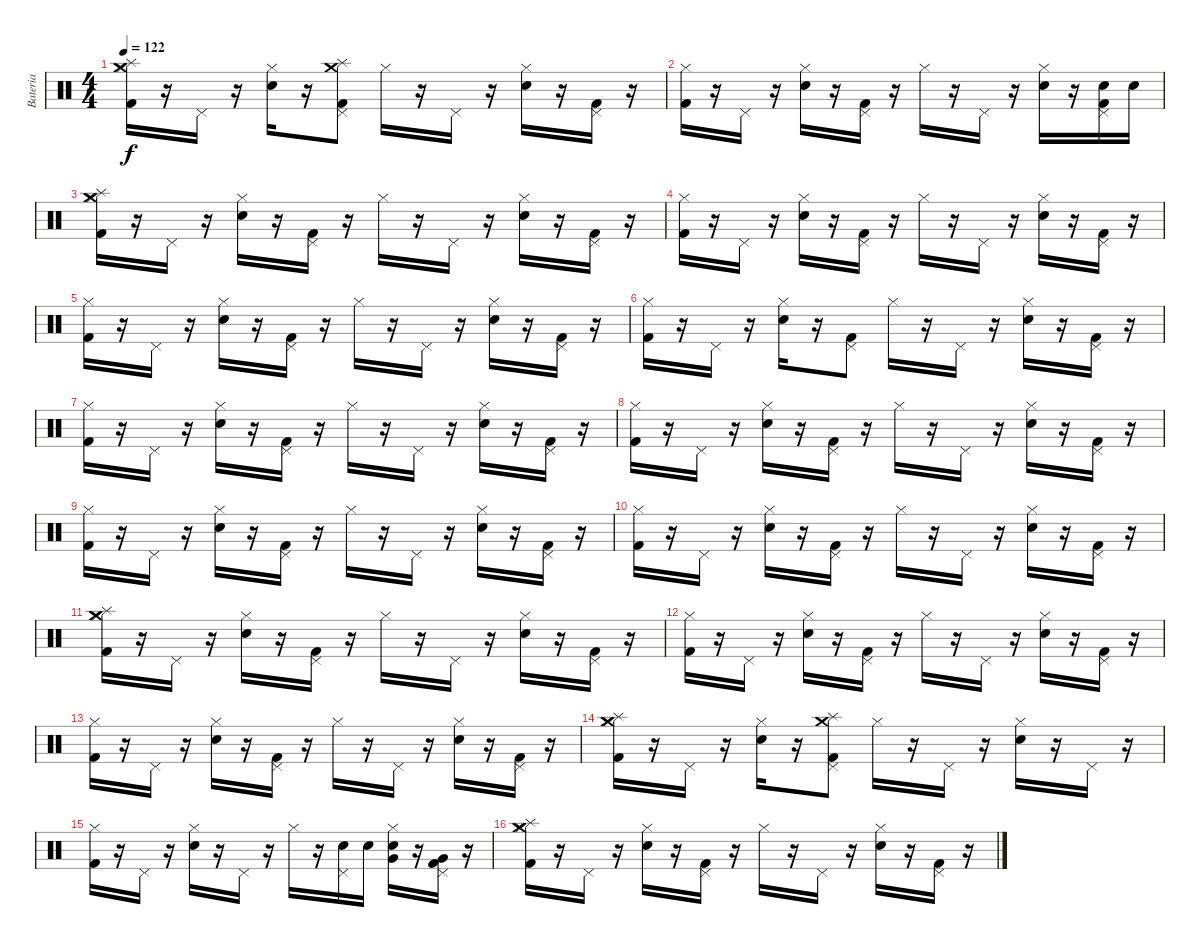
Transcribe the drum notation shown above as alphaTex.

\track ("Bateria" "Bateria") {instrument percussion}
\staff {score}
\articulation defaults
\ts (4 4)
\tempo 122
\clef neutral
\ks c
("Kick (hit) 2" "Hi-Hat (closed)" "Crash medium (hit)" "Splash (hit)").16{dy f} r.16 "Pedal Hi-Hat (hit)".16 r.16 ("Snare (hit) 2" "Hi-Hat (closed)").16 r.16 ("Kick (hit) 2" "Pedal Hi-Hat (hit)" "Crash medium (hit)" "Splash (hit)").8 "Hi-Hat (closed)".16 r.16 "Pedal Hi-Hat (hit)".16 r.16 ("Hi-Hat (closed)" "Snare (hit) 2").16 r.16 ("Kick (hit) 2" "Pedal Hi-Hat (hit)").16 r.16 |
("Kick (hit) 2" "Hi-Hat (closed)").16 r.16 "Pedal Hi-Hat (hit)".16 r.16 ("Snare (hit) 2" "Hi-Hat (closed)").16 r.16 ("Kick (hit) 2" "Pedal Hi-Hat (hit)").16 r.16 "Hi-Hat (closed)".16 r.16 "Pedal Hi-Hat (hit)".16 r.16 ("Hi-Hat (closed)" "Snare (hit) 2").16 r.16 ("Snare (hit) 2" "Pedal Hi-Hat (hit)" "Kick (hit) 2").16 "Snare (hit) 2".16 |
("Hi-Hat (closed)" "Crash medium (hit)" "Splash (hit)" "Kick (hit) 2").16 r.16 "Pedal Hi-Hat (hit)".16 r.16 ("Snare (hit) 2" "Hi-Hat (closed)").16 r.16 ("Kick (hit) 2" "Pedal Hi-Hat (hit)").16 r.16 "Hi-Hat (closed)".16 r.16 "Pedal Hi-Hat (hit)".16 r.16 ("Snare (hit) 2" "Hi-Hat (closed)").16 r.16 ("Kick (hit) 2" "Pedal Hi-Hat (hit)").16 r.16 |
("Hi-Hat (closed)" "Kick (hit) 2").16 r.16 "Pedal Hi-Hat (hit)".16 r.16 ("Hi-Hat (closed)" "Snare (hit) 2").16 r.16 ("Kick (hit) 2" "Pedal Hi-Hat (hit)").16 r.16 "Hi-Hat (closed)".16 r.16 "Pedal Hi-Hat (hit)".16 r.16 ("Snare (hit) 2" "Hi-Hat (closed)").16 r.16 ("Kick (hit) 2" "Pedal Hi-Hat (hit)").16 r.16 |
("Kick (hit) 2" "Hi-Hat (closed)").16 r.16 "Pedal Hi-Hat (hit)".16 r.16 ("Hi-Hat (closed)" "Snare (hit) 2").16 r.16 ("Pedal Hi-Hat (hit)" "Kick (hit) 2").16 r.16 "Hi-Hat (closed)".16 r.16 "Pedal Hi-Hat (hit)".16 r.16 ("Snare (hit) 2" "Hi-Hat (closed)").16 r.16 ("Kick (hit) 2" "Pedal Hi-Hat (hit)").16 r.16 |
("Kick (hit) 2" "Hi-Hat (closed)").16 r.16 "Pedal Hi-Hat (hit)".16 r.16 ("Snare (hit) 2" "Hi-Hat (closed)").16 r.16 ("Kick (hit) 2" "Pedal Hi-Hat (hit)").8 "Hi-Hat (closed)".16 r.16 "Pedal Hi-Hat (hit)".16 r.16 ("Hi-Hat (closed)" "Snare (hit) 2").16 r.16 ("Kick (hit) 2" "Pedal Hi-Hat (hit)").16 r.16 |
("Kick (hit) 2" "Hi-Hat (closed)").16 r.16 "Pedal Hi-Hat (hit)".16 r.16 ("Snare (hit) 2" "Hi-Hat (closed)").16 r.16 ("Kick (hit) 2" "Pedal Hi-Hat (hit)").16 r.16 "Hi-Hat (closed)".16 r.16 "Pedal Hi-Hat (hit)".16 r.16 ("Hi-Hat (closed)" "Snare (hit) 2").16 r.16 ("Pedal Hi-Hat (hit)" "Kick (hit) 2").16 r.16 |
("Hi-Hat (closed)" "Kick (hit) 2").16 r.16 "Pedal Hi-Hat (hit)".16 r.16 ("Snare (hit) 2" "Hi-Hat (closed)").16 r.16 ("Kick (hit) 2" "Pedal Hi-Hat (hit)").16 r.16 "Hi-Hat (closed)".16 r.16 "Pedal Hi-Hat (hit)".16 r.16 ("Snare (hit) 2" "Hi-Hat (closed)").16 r.16 ("Kick (hit) 2" "Pedal Hi-Hat (hit)").16 r.16 |
("Hi-Hat (closed)" "Kick (hit) 2").16 r.16 "Pedal Hi-Hat (hit)".16 r.16 ("Hi-Hat (closed)" "Snare (hit) 2").16 r.16 ("Kick (hit) 2" "Pedal Hi-Hat (hit)").16 r.16 "Hi-Hat (closed)".16 r.16 "Pedal Hi-Hat (hit)".16 r.16 ("Snare (hit) 2" "Hi-Hat (closed)").16 r.16 ("Kick (hit) 2" "Pedal Hi-Hat (hit)").16 r.16 |
("Kick (hit) 2" "Hi-Hat (closed)").16 r.16 "Pedal Hi-Hat (hit)".16 r.16 ("Hi-Hat (closed)" "Snare (hit) 2").16 r.16 ("Pedal Hi-Hat (hit)" "Kick (hit) 2").16 r.16 "Hi-Hat (closed)".16 r.16 "Pedal Hi-Hat (hit)".16 r.16 ("Snare (hit) 2" "Hi-Hat (closed)").16 r.16 ("Kick (hit) 2" "Pedal Hi-Hat (hit)").16 r.16 |
("Kick (hit) 2" "Splash (hit)" "Crash medium (hit)" "Hi-Hat (closed)").16 r.16 "Pedal Hi-Hat (hit)".16 r.16 ("Snare (hit) 2" "Hi-Hat (closed)").16 r.16 ("Kick (hit) 2" "Pedal Hi-Hat (hit)").16 r.16 "Hi-Hat (closed)".16 r.16 "Pedal Hi-Hat (hit)".16 r.16 ("Hi-Hat (closed)" "Snare (hit) 2").16 r.16 ("Kick (hit) 2" "Pedal Hi-Hat (hit)").16 r.16 |
("Kick (hit) 2" "Hi-Hat (closed)").16 r.16 "Pedal Hi-Hat (hit)".16 r.16 ("Snare (hit) 2" "Hi-Hat (closed)").16 r.16 ("Kick (hit) 2" "Pedal Hi-Hat (hit)").16 r.16 "Hi-Hat (closed)".16 r.16 "Pedal Hi-Hat (hit)".16 r.16 ("Hi-Hat (closed)" "Snare (hit) 2").16 r.16 ("Pedal Hi-Hat (hit)" "Kick (hit) 2").16 r.16 |
("Hi-Hat (closed)" "Kick (hit) 2").16 r.16 "Pedal Hi-Hat (hit)".16 r.16 ("Snare (hit) 2" "Hi-Hat (closed)").16 r.16 ("Kick (hit) 2" "Pedal Hi-Hat (hit)").16 r.16 "Hi-Hat (closed)".16 r.16 "Pedal Hi-Hat (hit)".16 r.16 ("Snare (hit) 2" "Hi-Hat (closed)").16 r.16 ("Kick (hit) 2" "Pedal Hi-Hat (hit)").16 r.16 |
("Splash (hit)" "Crash medium (hit)" "Hi-Hat (closed)" "Kick (hit) 2").16 r.16 "Pedal Hi-Hat (hit)".16 r.16 ("Hi-Hat (closed)" "Snare (hit) 2").16 r.16 ("Kick (hit) 2" "Pedal Hi-Hat (hit)" "Crash medium (hit)" "Splash (hit)").8 "Hi-Hat (closed)".16 r.16 "Pedal Hi-Hat (hit)".16 r.16 ("Snare (hit) 2" "Hi-Hat (closed)").16 r.16 "Pedal Hi-Hat (hit)".16 r.16 |
("Kick (hit) 2" "Hi-Hat (closed)").16 r.16 "Pedal Hi-Hat (hit)".16 r.16 ("Hi-Hat (closed)" "Snare (hit) 2").16 r.16 "Pedal Hi-Hat (hit)".16 r.16 "Hi-Hat (closed)".16 r.16 ("Pedal Hi-Hat (hit)" "Snare (hit) 2").16 "Snare (hit) 2".16 ("Snare (hit) 2" "Hi-Hat (closed)" "Very Low Tom (hit)").16 r.16 ("Kick (hit) 2" "Pedal Hi-Hat (hit)" "Very Low Tom (hit)").16 r.16 |
("Kick (hit) 2" "Splash (hit)" "Crash medium (hit)" "Hi-Hat (closed)").16 r.16 "Pedal Hi-Hat (hit)".16 r.16 ("Snare (hit) 2" "Hi-Hat (closed)").16 r.16 ("Kick (hit) 2" "Pedal Hi-Hat (hit)").16 r.16 "Hi-Hat (closed)".16 r.16 "Pedal Hi-Hat (hit)".16 r.16 ("Hi-Hat (closed)" "Snare (hit) 2").16 r.16 ("Kick (hit) 2" "Pedal Hi-Hat (hit)").16 r.16
